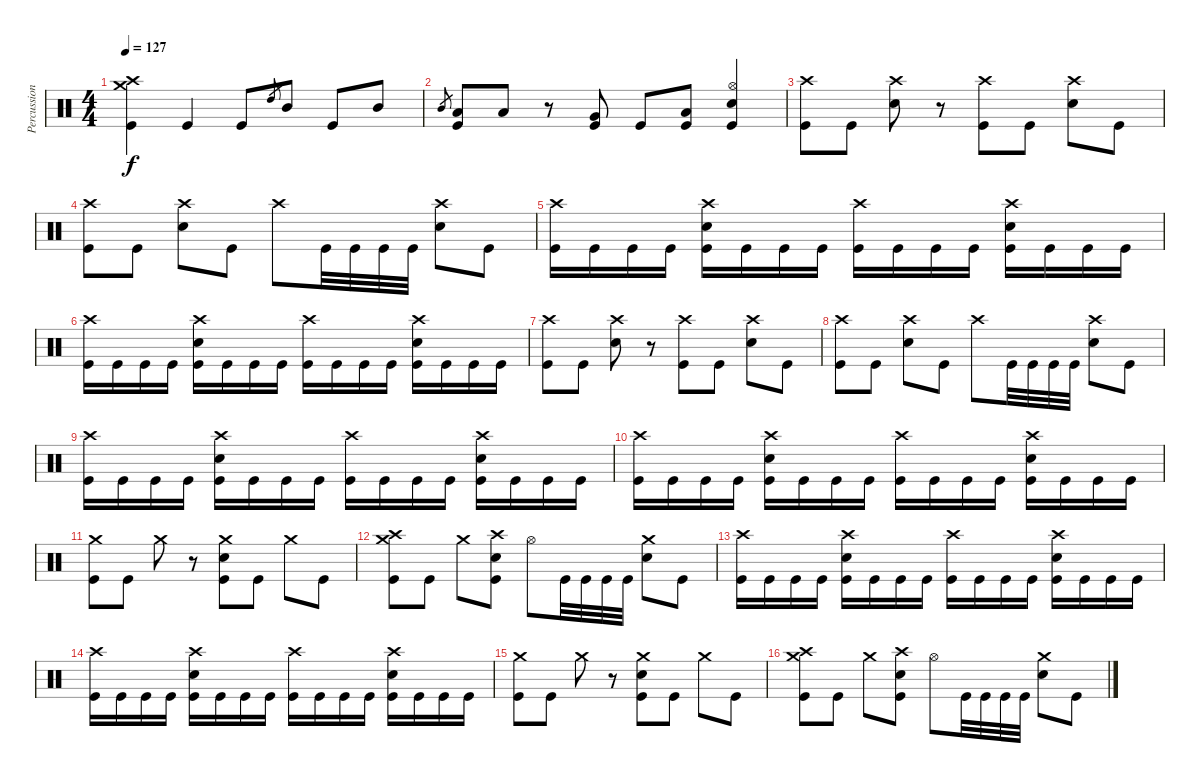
\track ("Percussion" "Percussion") {instrument percussion}
\staff {score}
\articulation defaults
\ts (4 4)
\tempo 127
\clef neutral
\ks c
("Crash medium (hit)" "Crash high (hit)" "Kick (hit)").4{dy f} "Kick (hit)".4 "Kick (hit)".8 "High Tom (hit)".8{gr} "Mid Tom (hit)".8 "Kick (hit)".8 "Mid Tom (hit)".8 |
"Mid Tom (hit)".8{gr} ("Low Tom (hit)" "Kick (hit)").8 "Low Tom (hit)".8 r.8 ("Very Low Tom (hit)" "Kick (hit)").8 "Kick (hit)".8 ("Low Tom (hit)" "Kick (hit)").8 ("Hi-Hat (open)" "Snare (hit) 2" "Kick (hit)").4 |
("Crash high (hit)" "Kick (hit)").8 "Kick (hit)".8 ("Crash high (hit)" "Snare (hit) 2").8 r.8 ("Crash high (hit)" "Kick (hit)").8 "Kick (hit)".8 ("Crash high (hit)" "Snare (hit) 2").8 "Kick (hit)".8 |
("Crash high (hit)" "Kick (hit)").8 "Kick (hit)".8 ("Crash high (hit)" "Snare (hit) 2").8 "Kick (hit)".8 "Crash high (hit)".8 "Kick (hit)".32 "Kick (hit)".32 "Kick (hit)".32 "Kick (hit)".32 ("Crash high (hit)" "Snare (hit) 2").8 "Kick (hit)".8 |
("Crash high (hit)" "Kick (hit)").16 "Kick (hit)".16 "Kick (hit)".16 "Kick (hit)".16 ("Crash high (hit)" "Snare (hit) 2" "Kick (hit)").16 "Kick (hit)".16 "Kick (hit)".16 "Kick (hit)".16 ("Crash high (hit)" "Kick (hit)").16 "Kick (hit)".16 "Kick (hit)".16 "Kick (hit)".16 ("Crash high (hit)" "Snare (hit) 2" "Kick (hit)").16 "Kick (hit)".16 "Kick (hit)".16 "Kick (hit)".16 |
("Crash high (hit)" "Kick (hit)").16 "Kick (hit)".16 "Kick (hit)".16 "Kick (hit)".16 ("Crash high (hit)" "Snare (hit) 2" "Kick (hit)").16 "Kick (hit)".16 "Kick (hit)".16 "Kick (hit)".16 ("Crash high (hit)" "Kick (hit)").16 "Kick (hit)".16 "Kick (hit)".16 "Kick (hit)".16 ("Crash high (hit)" "Snare (hit) 2" "Kick (hit)").16 "Kick (hit)".16 "Kick (hit)".16 "Kick (hit)".16 |
("Crash high (hit)" "Kick (hit)").8 "Kick (hit)".8 ("Crash high (hit)" "Snare (hit) 2").8 r.8 ("Crash high (hit)" "Kick (hit)").8 "Kick (hit)".8 ("Crash high (hit)" "Snare (hit) 2").8 "Kick (hit)".8 |
("Crash high (hit)" "Kick (hit)").8 "Kick (hit)".8 ("Crash high (hit)" "Snare (hit) 2").8 "Kick (hit)".8 "Crash high (hit)".8 "Kick (hit)".32 "Kick (hit)".32 "Kick (hit)".32 "Kick (hit)".32 ("Crash high (hit)" "Snare (hit) 2").8 "Kick (hit)".8 |
("Crash high (hit)" "Kick (hit)").16 "Kick (hit)".16 "Kick (hit)".16 "Kick (hit)".16 ("Crash high (hit)" "Snare (hit) 2" "Kick (hit)").16 "Kick (hit)".16 "Kick (hit)".16 "Kick (hit)".16 ("Crash high (hit)" "Kick (hit)").16 "Kick (hit)".16 "Kick (hit)".16 "Kick (hit)".16 ("Crash high (hit)" "Snare (hit) 2" "Kick (hit)").16 "Kick (hit)".16 "Kick (hit)".16 "Kick (hit)".16 |
("Crash high (hit)" "Kick (hit)").16 "Kick (hit)".16 "Kick (hit)".16 "Kick (hit)".16 ("Crash high (hit)" "Snare (hit) 2" "Kick (hit)").16 "Kick (hit)".16 "Kick (hit)".16 "Kick (hit)".16 ("Crash high (hit)" "Kick (hit)").16 "Kick (hit)".16 "Kick (hit)".16 "Kick (hit)".16 ("Crash high (hit)" "Snare (hit) 2" "Kick (hit)").16 "Kick (hit)".16 "Kick (hit)".16 "Kick (hit)".16 |
("Crash medium (hit)" "Kick (hit)").8 "Kick (hit)".8 "Crash medium (hit)".8 r.8 ("Crash medium (hit)" "Snare (hit) 2" "Kick (hit)").8 "Kick (hit)".8 "Crash medium (hit)".8 "Kick (hit)".8 |
("Crash medium (hit)" "Crash high (hit)" "Kick (hit)").8 "Kick (hit)".8 "Crash medium (hit)".8 ("Crash high (hit)" "Snare (hit) 2" "Kick (hit)").8 "Hi-Hat (open)".8 "Kick (hit)".32 "Kick (hit)".32 "Kick (hit)".32 "Kick (hit)".32 ("Crash medium (hit)" "Snare (hit) 2").8 "Kick (hit)".8 |
("Crash high (hit)" "Kick (hit)").16 "Kick (hit)".16 "Kick (hit)".16 "Kick (hit)".16 ("Crash high (hit)" "Snare (hit) 2" "Kick (hit)").16 "Kick (hit)".16 "Kick (hit)".16 "Kick (hit)".16 ("Crash high (hit)" "Kick (hit)").16 "Kick (hit)".16 "Kick (hit)".16 "Kick (hit)".16 ("Crash high (hit)" "Snare (hit) 2" "Kick (hit)").16 "Kick (hit)".16 "Kick (hit)".16 "Kick (hit)".16 |
("Crash high (hit)" "Kick (hit)").16 "Kick (hit)".16 "Kick (hit)".16 "Kick (hit)".16 ("Crash high (hit)" "Snare (hit) 2" "Kick (hit)").16 "Kick (hit)".16 "Kick (hit)".16 "Kick (hit)".16 ("Crash high (hit)" "Kick (hit)").16 "Kick (hit)".16 "Kick (hit)".16 "Kick (hit)".16 ("Crash high (hit)" "Snare (hit) 2" "Kick (hit)").16 "Kick (hit)".16 "Kick (hit)".16 "Kick (hit)".16 |
("Crash medium (hit)" "Kick (hit)").8 "Kick (hit)".8 "Crash medium (hit)".8 r.8 ("Crash medium (hit)" "Snare (hit) 2" "Kick (hit)").8 "Kick (hit)".8 "Crash medium (hit)".8 "Kick (hit)".8 |
("Crash medium (hit)" "Crash high (hit)" "Kick (hit)").8 "Kick (hit)".8 "Crash medium (hit)".8 ("Crash high (hit)" "Snare (hit) 2" "Kick (hit)").8 "Hi-Hat (open)".8 "Kick (hit)".32 "Kick (hit)".32 "Kick (hit)".32 "Kick (hit)".32 ("Crash medium (hit)" "Snare (hit) 2").8 "Kick (hit)".8
